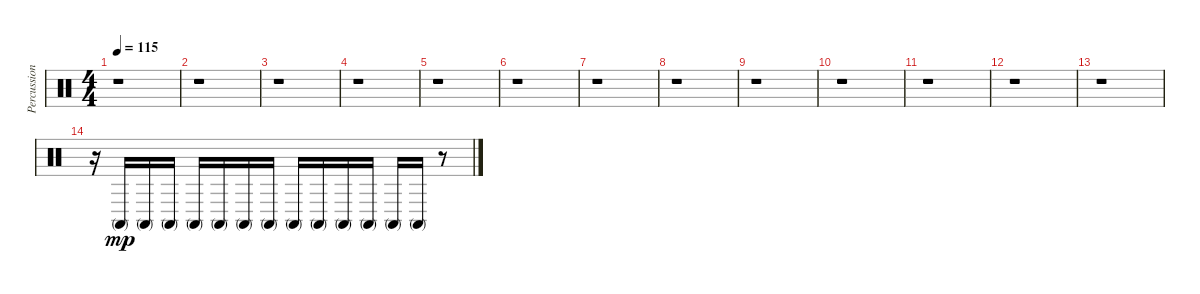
\track ("Percussions" "Percussion") {instrument percussion}
\staff {score}
\articulation defaults
\ts (4 4)
\tempo 115
\clef neutral
\ks c
r.1{dy mp} |
r.1 |
r.1 |
r.1 |
r.1 |
r.1 |
r.1 |
r.1 |
r.1 |
r.1 |
r.1 |
r.1 |
r.1 |
r.16 "Conga high (mute)".16 "Conga high (mute)".16 "Conga high (mute)".16 "Conga high (mute)".16 "Conga high (mute)".16 "Conga high (mute)".16 "Conga high (mute)".16 "Conga high (mute)".16 "Conga high (mute)".16 "Conga high (mute)".16 "Conga high (mute)".16 "Conga high (mute)".16 "Conga high (mute)".16 r.8
